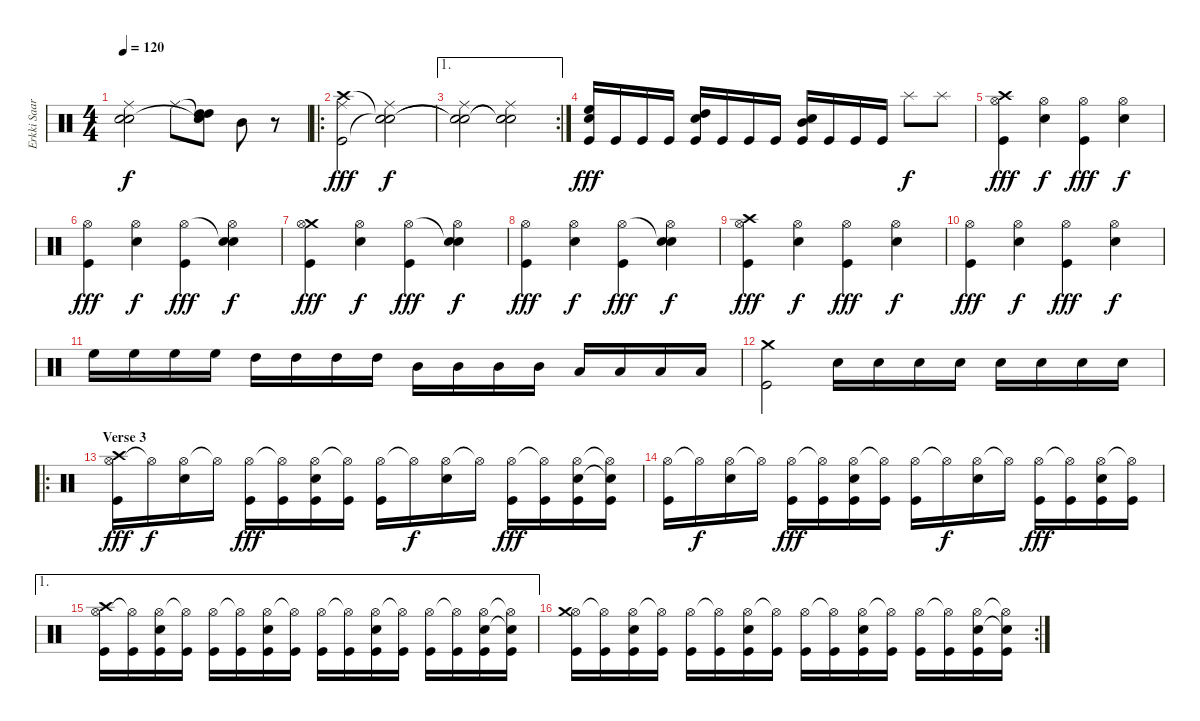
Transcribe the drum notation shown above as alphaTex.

\track ("Erkki Saarinen" "Erkki Saar") {instrument percussion}
\staff {score}
\articulation defaults
\ts (4 4)
\tempo 120
\clef neutral
\ks c
("Ride (middle)" "Snare (hit)"{t} "Snare (hit)"{t}).2{dy f} "Ride (middle)".8 ("Snare (hit)"{t} "Snare (hit)"{t} "High Tom (hit)" "High Tom (hit)").8{balance 3} "Mid Tom (hit)".8{balance 12} r.8 |
\ro
("Ride (middle)" "Crash high (hit)" "Kick (hit)").2{dy fff balance 9} ("Ride (middle)" "Snare (hit)"{t} "Snare (hit)"{t}).2{dy f} |
\ae 1
\rc 2
("Ride (middle)" "Snare (hit)"{t} "Snare (hit)"{t}).2 ("Ride (middle)" "Snare (hit)"{t} "Snare (hit)"{t}).2 |
("High Floor Tom (hit)" "Snare (hit) 2" "Kick (hit)").16{dy fff balance 7} "Kick (hit)".16 "Kick (hit)".16 "Kick (hit)".16 ("High Tom (hit)" "Snare (hit) 2" "Kick (hit)").16 "Kick (hit)".16 "Kick (hit)".16 "Kick (hit)".16 ("Mid Tom (hit)" "Snare (hit) 2" "Kick (hit)").16 "Kick (hit)".16 "Kick (hit)".16 "Kick (hit)".16 "Splash (hit)".8{dy f} "Splash (hit)".8 |
("Crash high (hit)" "Hi-Hat (open)" "Kick (hit)").4{dy fff} ("Hi-Hat (open)" "Snare (hit) 2").4{dy f} ("Hi-Hat (open)" "Kick (hit)").4{dy fff} ("Hi-Hat (open)" "Snare (hit) 2").4{dy f} |
("Hi-Hat (open)" "Kick (hit)").4{dy fff} ("Hi-Hat (open)" "Snare (hit) 2").4{dy f} ("Hi-Hat (open)" "Kick (hit)").4{dy fff} ("Snare (hit)"{t} "Hi-Hat (open)" "Snare (hit) 2").4{dy f} |
("Crash medium (hit)" "Hi-Hat (open)" "Kick (hit)").4{dy fff} ("Hi-Hat (open)" "Snare (hit) 2").4{dy f} ("Hi-Hat (open)" "Kick (hit)").4{dy fff} ("Snare (hit)"{t} "Hi-Hat (open)" "Snare (hit) 2").4{dy f} |
("Hi-Hat (open)" "Kick (hit)").4{dy fff} ("Hi-Hat (open)" "Snare (hit) 2").4{dy f} ("Hi-Hat (open)" "Kick (hit)").4{dy fff} ("Snare (hit)"{t} "Hi-Hat (open)" "Snare (hit) 2").4{dy f} |
("Crash high (hit)" "Hi-Hat (open)" "Kick (hit)").4{dy fff} ("Hi-Hat (open)" "Snare (hit) 2").4{dy f} ("Hi-Hat (open)" "Kick (hit)").4{dy fff} ("Hi-Hat (open)" "Snare (hit) 2").4{dy f} |
("Hi-Hat (open)" "Kick (hit)").4{dy fff} ("Hi-Hat (open)" "Snare (hit) 2").4{dy f} ("Hi-Hat (open)" "Kick (hit)").4{dy fff} ("Hi-Hat (open)" "Snare (hit) 2").4{dy f} |
"High Floor Tom (hit)".16 "High Floor Tom (hit)".16 "High Floor Tom (hit)".16 "High Floor Tom (hit)".16 "High Tom (hit)".16 "High Tom (hit)".16 "High Tom (hit)".16 "High Tom (hit)".16 "Mid Tom (hit)".16 "Mid Tom (hit)".16 "Mid Tom (hit)".16 "Mid Tom (hit)".16 "Low Tom (hit)".16 "Low Tom (hit)".16 "Low Tom (hit)".16 "Low Tom (hit)".16 |
("Crash medium (hit)" "Kick (hit)").2 "Snare (hit) 2".16 "Snare (hit) 2".16 "Snare (hit) 2".16 "Snare (hit) 2".16 "Snare (hit) 2".16 "Snare (hit) 2".16 "Snare (hit) 2".16 "Snare (hit) 2".16 |
\ro
\section ("" "Verse 3")
("Hi-Hat (open)" "Crash high (hit)" "Kick (hit)").16{dy fff} "Hi-Hat (open)"{t}.16{dy f} ("Hi-Hat (open)" "Snare (hit) 2").16 "Hi-Hat (open)"{t}.16 ("Hi-Hat (open)" "Kick (hit)").16{dy fff} ("Hi-Hat (open)"{t} "Kick (hit)").16 ("Hi-Hat (open)" "Snare (hit) 2" "Kick (hit)").16 ("Hi-Hat (open)"{t} "Kick (hit)").16 ("Hi-Hat (open)" "Kick (hit)").16 "Hi-Hat (open)"{t}.16{dy f} ("Hi-Hat (open)" "Snare (hit) 2").16 "Hi-Hat (open)"{t}.16 ("Hi-Hat (open)" "Kick (hit)").16{dy fff} ("Hi-Hat (open)"{t} "Kick (hit)").16 ("Hi-Hat (open)" "Snare (hit) 2" "Kick (hit)").16 ("Hi-Hat (open)"{t} "Snare (hit)"{t} "Kick (hit)").16 |
("Hi-Hat (open)" "Kick (hit)").16 "Hi-Hat (open)"{t}.16{dy f} ("Hi-Hat (open)" "Snare (hit) 2").16 "Hi-Hat (open)"{t}.16 ("Hi-Hat (open)" "Kick (hit)").16{dy fff} ("Hi-Hat (open)"{t} "Kick (hit)").16 ("Hi-Hat (open)" "Snare (hit) 2" "Kick (hit)").16 ("Hi-Hat (open)"{t} "Kick (hit)").16 ("Hi-Hat (open)" "Kick (hit)").16 "Hi-Hat (open)"{t}.16{dy f} ("Hi-Hat (open)" "Snare (hit) 2").16 "Hi-Hat (open)"{t}.16 ("Hi-Hat (open)" "Kick (hit)").16{dy fff} ("Hi-Hat (open)"{t} "Kick (hit)").16 ("Hi-Hat (open)" "Snare (hit) 2" "Kick (hit)").16 ("Hi-Hat (open)"{t} "Kick (hit)").16 |
\ae 1
("Hi-Hat (open)" "Crash high (hit)" "Kick (hit)").16 ("Hi-Hat (open)"{t} "Kick (hit)").16 ("Hi-Hat (open)" "Snare (hit) 2" "Kick (hit)").16 ("Hi-Hat (open)"{t} "Kick (hit)").16 ("Hi-Hat (open)" "Kick (hit)").16 ("Hi-Hat (open)"{t} "Kick (hit)").16 ("Hi-Hat (open)" "Snare (hit) 2" "Kick (hit)").16 ("Hi-Hat (open)"{t} "Kick (hit)").16 ("Hi-Hat (open)" "Kick (hit)").16 ("Hi-Hat (open)"{t} "Kick (hit)").16 ("Hi-Hat (open)" "Snare (hit) 2" "Kick (hit)").16 ("Hi-Hat (open)"{t} "Kick (hit)").16 ("Hi-Hat (open)" "Kick (hit)").16 ("Hi-Hat (open)"{t} "Kick (hit)").16 ("Hi-Hat (open)" "Snare (hit) 2" "Kick (hit)").16 ("Hi-Hat (open)"{t} "Snare (hit)"{t} "Kick (hit)").16 |
\rc 2
("Hi-Hat (open)" "Crash medium (hit)" "Kick (hit)").16 ("Hi-Hat (open)"{t} "Kick (hit)").16 ("Hi-Hat (open)" "Snare (hit) 2" "Kick (hit)").16 ("Hi-Hat (open)"{t} "Kick (hit)").16 ("Hi-Hat (open)" "Kick (hit)").16 ("Hi-Hat (open)"{t} "Kick (hit)").16 ("Hi-Hat (open)" "Snare (hit) 2" "Kick (hit)").16 ("Hi-Hat (open)"{t} "Kick (hit)").16 ("Hi-Hat (open)" "Kick (hit)").16 ("Hi-Hat (open)"{t} "Kick (hit)").16 ("Hi-Hat (open)" "Snare (hit) 2" "Kick (hit)").16 ("Hi-Hat (open)"{t} "Kick (hit)").16 ("Hi-Hat (open)" "Kick (hit)").16 ("Hi-Hat (open)"{t} "Kick (hit)").16 ("Hi-Hat (open)" "Snare (hit) 2" "Kick (hit)").16 ("Hi-Hat (open)"{t} "Snare (hit)"{t} "Kick (hit)").16
